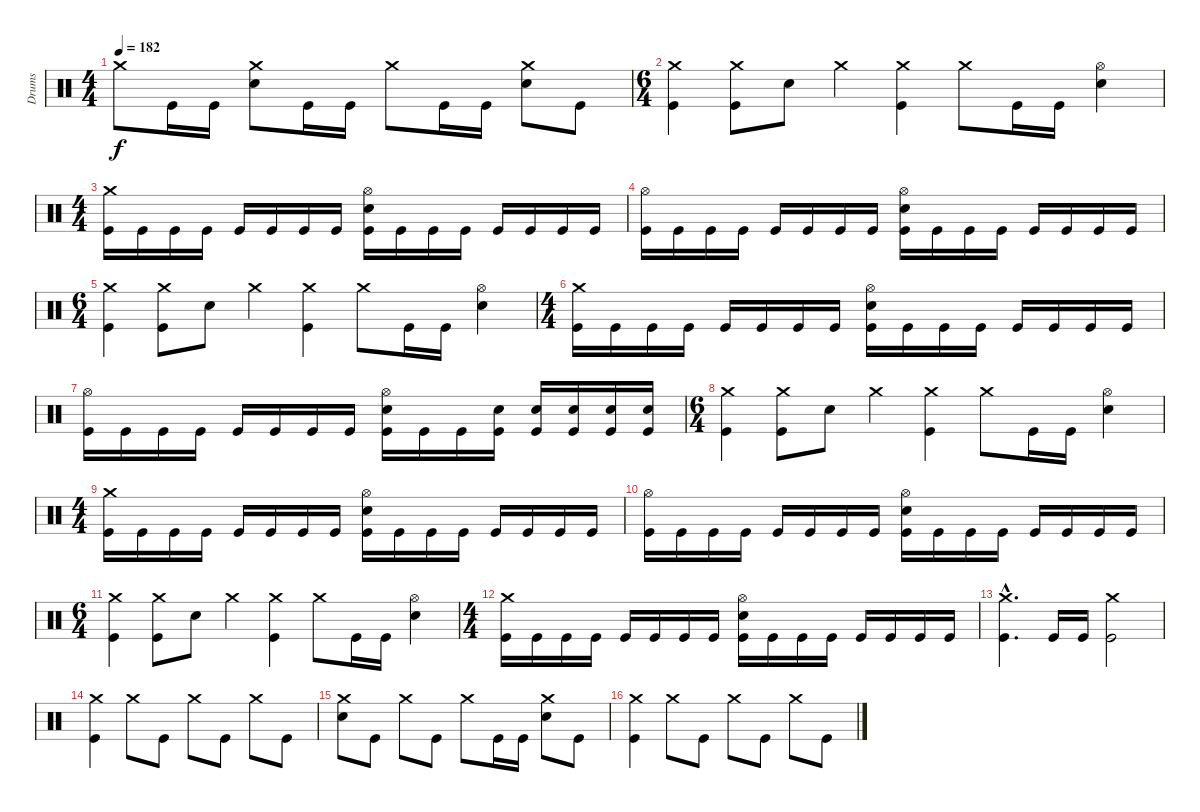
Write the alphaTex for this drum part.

\track ("Drums" "Drums") {instrument percussion}
\staff {score}
\articulation defaults
\ts (4 4)
\tempo 182
\clef neutral
\ks c "Crash medium (hit)".8{dy f} "Kick (hit)".16 "Kick (hit)".16
("Crash medium (hit)" "Electric Snare (hit)").8 "Kick (hit)".16 "Kick (hit)".16 "Crash medium (hit)".8 "Kick (hit)".16 "Kick (hit)".16 ("Crash medium (hit)" "Electric Snare (hit)").8 "Kick (hit)".8 |
\ts (6 4)
("Crash medium (hit)" "Kick (hit)").4 ("Crash medium (hit)" "Kick (hit)").8 "Electric Snare (hit)".8 "Crash medium (hit)".4 ("Crash medium (hit)" "Kick (hit)").4 "Crash medium (hit)".8 "Kick (hit)".16 "Kick (hit)".16 ("Hi-Hat (open)" "Electric Snare (hit)").4 |
\ts (4 4)
("Crash medium (hit)" "Kick (hit)").16 "Kick (hit)".16 "Kick (hit)".16 "Kick (hit)".16 "Kick (hit)".16 "Kick (hit)".16 "Kick (hit)".16 "Kick (hit)".16 ("Hi-Hat (open)" "Electric Snare (hit)" "Kick (hit)").16 "Kick (hit)".16 "Kick (hit)".16 "Kick (hit)".16 "Kick (hit)".16 "Kick (hit)".16 "Kick (hit)".16 "Kick (hit)".16 |
("Hi-Hat (open)" "Kick (hit)").16 "Kick (hit)".16 "Kick (hit)".16 "Kick (hit)".16 "Kick (hit)".16 "Kick (hit)".16 "Kick (hit)".16 "Kick (hit)".16 ("Hi-Hat (open)" "Electric Snare (hit)" "Kick (hit)").16 "Kick (hit)".16 "Kick (hit)".16 "Kick (hit)".16 "Kick (hit)".16 "Kick (hit)".16 "Kick (hit)".16 "Kick (hit)".16 |
\ts (6 4)
("Crash medium (hit)" "Kick (hit)").4 ("Crash medium (hit)" "Kick (hit)").8 "Electric Snare (hit)".8 "Crash medium (hit)".4 ("Crash medium (hit)" "Kick (hit)").4 "Crash medium (hit)".8 "Kick (hit)".16 "Kick (hit)".16 ("Hi-Hat (open)" "Electric Snare (hit)").4 |
\ts (4 4)
("Crash medium (hit)" "Kick (hit)").16 "Kick (hit)".16 "Kick (hit)".16 "Kick (hit)".16 "Kick (hit)".16 "Kick (hit)".16 "Kick (hit)".16 "Kick (hit)".16 ("Hi-Hat (open)" "Electric Snare (hit)" "Kick (hit)").16 "Kick (hit)".16 "Kick (hit)".16 "Kick (hit)".16 "Kick (hit)".16 "Kick (hit)".16 "Kick (hit)".16 "Kick (hit)".16 |
("Hi-Hat (open)" "Kick (hit)").16 "Kick (hit)".16 "Kick (hit)".16 "Kick (hit)".16 "Kick (hit)".16 "Kick (hit)".16 "Kick (hit)".16 "Kick (hit)".16 ("Hi-Hat (open)" "Electric Snare (hit)" "Kick (hit)").16 "Kick (hit)".16 "Kick (hit)".16 ("Electric Snare (hit)" "Kick (hit)").16 ("Electric Snare (hit)" "Kick (hit)").16 ("Electric Snare (hit)" "Kick (hit)").16 ("Electric Snare (hit)" "Kick (hit)").16 ("Electric Snare (hit)" "Kick (hit)").16 |
\ts (6 4)
("Crash medium (hit)" "Kick (hit)").4 ("Crash medium (hit)" "Kick (hit)").8 "Electric Snare (hit)".8 "Crash medium (hit)".4 ("Crash medium (hit)" "Kick (hit)").4 "Crash medium (hit)".8 "Kick (hit)".16 "Kick (hit)".16 ("Hi-Hat (open)" "Electric Snare (hit)").4 |
\ts (4 4)
("Crash medium (hit)" "Kick (hit)").16 "Kick (hit)".16 "Kick (hit)".16 "Kick (hit)".16 "Kick (hit)".16 "Kick (hit)".16 "Kick (hit)".16 "Kick (hit)".16 ("Hi-Hat (open)" "Electric Snare (hit)" "Kick (hit)").16 "Kick (hit)".16 "Kick (hit)".16 "Kick (hit)".16 "Kick (hit)".16 "Kick (hit)".16 "Kick (hit)".16 "Kick (hit)".16 |
("Hi-Hat (open)" "Kick (hit)").16 "Kick (hit)".16 "Kick (hit)".16 "Kick (hit)".16 "Kick (hit)".16 "Kick (hit)".16 "Kick (hit)".16 "Kick (hit)".16 ("Hi-Hat (open)" "Electric Snare (hit)" "Kick (hit)").16 "Kick (hit)".16 "Kick (hit)".16 "Kick (hit)".16 "Kick (hit)".16 "Kick (hit)".16 "Kick (hit)".16 "Kick (hit)".16 |
\ts (6 4)
("Crash medium (hit)" "Kick (hit)").4 ("Crash medium (hit)" "Kick (hit)").8 "Electric Snare (hit)".8 "Crash medium (hit)".4 ("Crash medium (hit)" "Kick (hit)").4 "Crash medium (hit)".8 "Kick (hit)".16 "Kick (hit)".16 ("Hi-Hat (open)" "Electric Snare (hit)").4 |
\ts (4 4)
("Crash medium (hit)" "Kick (hit)").16 "Kick (hit)".16 "Kick (hit)".16 "Kick (hit)".16 "Kick (hit)".16 "Kick (hit)".16 "Kick (hit)".16 "Kick (hit)".16 ("Hi-Hat (open)" "Electric Snare (hit)" "Kick (hit)").16 "Kick (hit)".16 "Kick (hit)".16 "Kick (hit)".16 "Kick (hit)".16 "Kick (hit)".16 "Kick (hit)".16 "Kick (hit)".16 |
("Crash medium (hit)"{hac} "Kick (hit)"{hac}).4{d} "Kick (hit)".16 "Kick (hit)".16 ("Crash medium (hit)" "Kick (hit)").2 |
("Crash medium (hit)" "Kick (hit)").4 "Crash medium (hit)".8 "Kick (hit)".8 "Crash medium (hit)".8 "Kick (hit)".8 "Crash medium (hit)".8 "Kick (hit)".8 |
("Crash medium (hit)" "Electric Snare (hit)").8 "Kick (hit)".8 "Crash medium (hit)".8 "Kick (hit)".8 "Crash medium (hit)".8 "Kick (hit)".16 "Kick (hit)".16 ("Crash medium (hit)" "Electric Snare (hit)").8 "Kick (hit)".8 |
("Crash medium (hit)" "Kick (hit)").4 "Crash medium (hit)".8 "Kick (hit)".8 "Crash medium (hit)".8 "Kick (hit)".8 "Crash medium (hit)".8 "Kick (hit)".8
